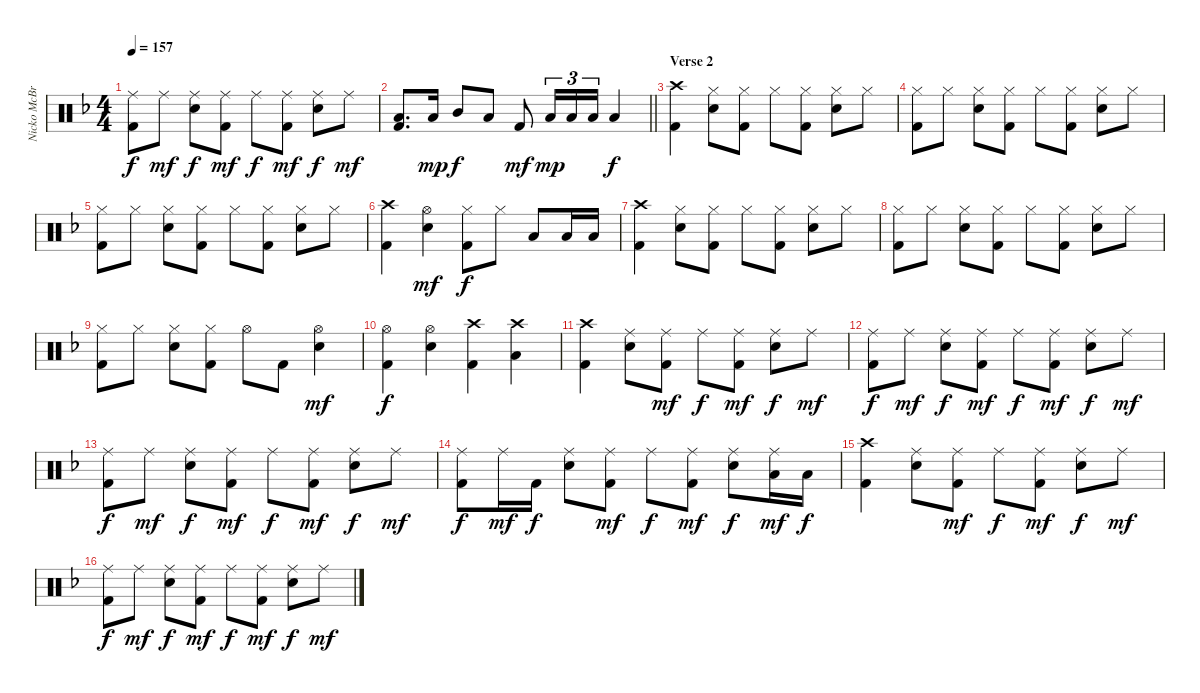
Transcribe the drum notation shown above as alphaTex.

\track ("Nicko McBrain" "Nicko McBr") {instrument percussion}
\staff {score}
\articulation defaults
\ts (4 4)
\tempo 157
\clef neutral
\ks f
("Ride (middle)" "Kick (hit) 2").8{dy f} "Ride (middle)".8{dy mf} ("Ride (middle)" "Electric Snare (hit)").8{dy f} ("Ride (middle)" "Kick (hit) 2").8{dy mf} "Ride (middle)".8{dy f} ("Ride (middle)" "Kick (hit) 2").8{dy mf} ("Ride (middle)" "Electric Snare (hit)").8{dy f} "Ride (middle)".8{dy mf} |
\barLineRight lightlight
("Low Tom (hit)" "Kick (hit) 2").8{d} "Low Tom (hit)".16{dy mp} "Mid Tom (hit)".8{dy f} "Low Tom (hit)".8 "Kick (hit) 2".8{dy mf} "Low Tom (hit)".16{tu (3 2) dy mp} "Low Tom (hit)".16{tu (3 2)} "Low Tom (hit)".16{tu (3 2)} "Low Tom (hit)".4{dy f} |
\section ("" "Verse 2")
("Crash high (hit)" "Kick (hit) 2").4 ("Hi-Hat (closed)" "Electric Snare (hit)").8 ("Hi-Hat (closed)" "Kick (hit) 2").8 "Hi-Hat (closed)".8 ("Hi-Hat (closed)" "Kick (hit) 2").8 ("Hi-Hat (closed)" "Electric Snare (hit)").8 "Hi-Hat (closed)".8 |
("Hi-Hat (closed)" "Kick (hit) 2").8 "Hi-Hat (closed)".8 ("Hi-Hat (closed)" "Electric Snare (hit)").8 ("Hi-Hat (closed)" "Kick (hit) 2").8 "Hi-Hat (closed)".8 ("Hi-Hat (closed)" "Kick (hit) 2").8 ("Hi-Hat (closed)" "Electric Snare (hit)").8 "Hi-Hat (closed)".8 |
("Hi-Hat (closed)" "Kick (hit) 2").8 "Hi-Hat (closed)".8 ("Hi-Hat (closed)" "Electric Snare (hit)").8 ("Hi-Hat (closed)" "Kick (hit) 2").8 "Hi-Hat (closed)".8 ("Hi-Hat (closed)" "Kick (hit) 2").8 ("Hi-Hat (closed)" "Electric Snare (hit)").8 "Hi-Hat (closed)".8 |
("Crash high (hit)" "Kick (hit) 2").4 ("Hi-Hat (open)" "Electric Snare (hit)").4{dy mf} ("Hi-Hat (closed)" "Kick (hit) 2").8{dy f} "Hi-Hat (closed)".8 "Low Tom (hit)".8 "Low Tom (hit)".16 "Low Tom (hit)".16 |
("Crash high (hit)" "Kick (hit) 2").4 ("Hi-Hat (closed)" "Electric Snare (hit)").8 ("Hi-Hat (closed)" "Kick (hit) 2").8 "Hi-Hat (closed)".8 ("Hi-Hat (closed)" "Kick (hit) 2").8 ("Hi-Hat (closed)" "Electric Snare (hit)").8 "Hi-Hat (closed)".8 |
("Hi-Hat (closed)" "Kick (hit) 2").8 "Hi-Hat (closed)".8 ("Hi-Hat (closed)" "Electric Snare (hit)").8 ("Hi-Hat (closed)" "Kick (hit) 2").8 "Hi-Hat (closed)".8 ("Hi-Hat (closed)" "Kick (hit) 2").8 ("Hi-Hat (closed)" "Electric Snare (hit)").8 "Hi-Hat (closed)".8 |
("Hi-Hat (closed)" "Kick (hit) 2").8 "Hi-Hat (closed)".8 ("Hi-Hat (closed)" "Electric Snare (hit)").8 ("Hi-Hat (closed)" "Kick (hit) 2").8 "Hi-Hat (open)".8 "Kick (hit) 2".8 ("Hi-Hat (open)" "Electric Snare (hit)").4{dy mf} |
("Hi-Hat (open)" "Kick (hit) 2").4{dy f} ("Hi-Hat (open)" "Electric Snare (hit)").4 ("Crash high (hit)" "Kick (hit) 2").4 ("Crash high (hit)" "Low Tom (hit)").4 |
("Crash high (hit)" "Kick (hit) 2").4 ("Ride (middle)" "Electric Snare (hit)").8 ("Ride (middle)" "Kick (hit) 2").8{dy mf} "Ride (middle)".8{dy f} ("Ride (middle)" "Kick (hit) 2").8{dy mf} ("Ride (middle)" "Electric Snare (hit)").8{dy f} "Ride (middle)".8{dy mf} |
("Ride (middle)" "Kick (hit) 2").8{dy f} "Ride (middle)".8{dy mf} ("Ride (middle)" "Electric Snare (hit)").8{dy f} ("Ride (middle)" "Kick (hit) 2").8{dy mf} "Ride (middle)".8{dy f} ("Ride (middle)" "Kick (hit) 2").8{dy mf} ("Ride (middle)" "Electric Snare (hit)").8{dy f} "Ride (middle)".8{dy mf} |
("Ride (middle)" "Kick (hit) 2").8{dy f} "Ride (middle)".8{dy mf} ("Ride (middle)" "Electric Snare (hit)").8{dy f} ("Ride (middle)" "Kick (hit) 2").8{dy mf} "Ride (middle)".8{dy f} ("Ride (middle)" "Kick (hit) 2").8{dy mf} ("Ride (middle)" "Electric Snare (hit)").8{dy f} "Ride (middle)".8{dy mf} |
("Ride (middle)" "Kick (hit) 2").8{dy f} "Ride (middle)".16{dy mf} "Kick (hit) 2".16{dy f} ("Ride (middle)" "Electric Snare (hit)").8 ("Ride (middle)" "Kick (hit) 2").8{dy mf} "Ride (middle)".8{dy f} ("Ride (middle)" "Kick (hit) 2").8{dy mf} ("Ride (middle)" "Electric Snare (hit)").8{dy f} ("Ride (middle)" "Low Tom (hit)").16{dy mf} "Low Tom (hit)".16{dy f} |
("Crash high (hit)" "Kick (hit) 2").4 ("Ride (middle)" "Electric Snare (hit)").8 ("Ride (middle)" "Kick (hit) 2").8{dy mf} "Ride (middle)".8{dy f} ("Ride (middle)" "Kick (hit) 2").8{dy mf} ("Ride (middle)" "Electric Snare (hit)").8{dy f} "Ride (middle)".8{dy mf} |
("Ride (middle)" "Kick (hit) 2").8{dy f} "Ride (middle)".8{dy mf} ("Ride (middle)" "Electric Snare (hit)").8{dy f} ("Ride (middle)" "Kick (hit) 2").8{dy mf} "Ride (middle)".8{dy f} ("Ride (middle)" "Kick (hit) 2").8{dy mf} ("Ride (middle)" "Electric Snare (hit)").8{dy f} "Ride (middle)".8{dy mf}
